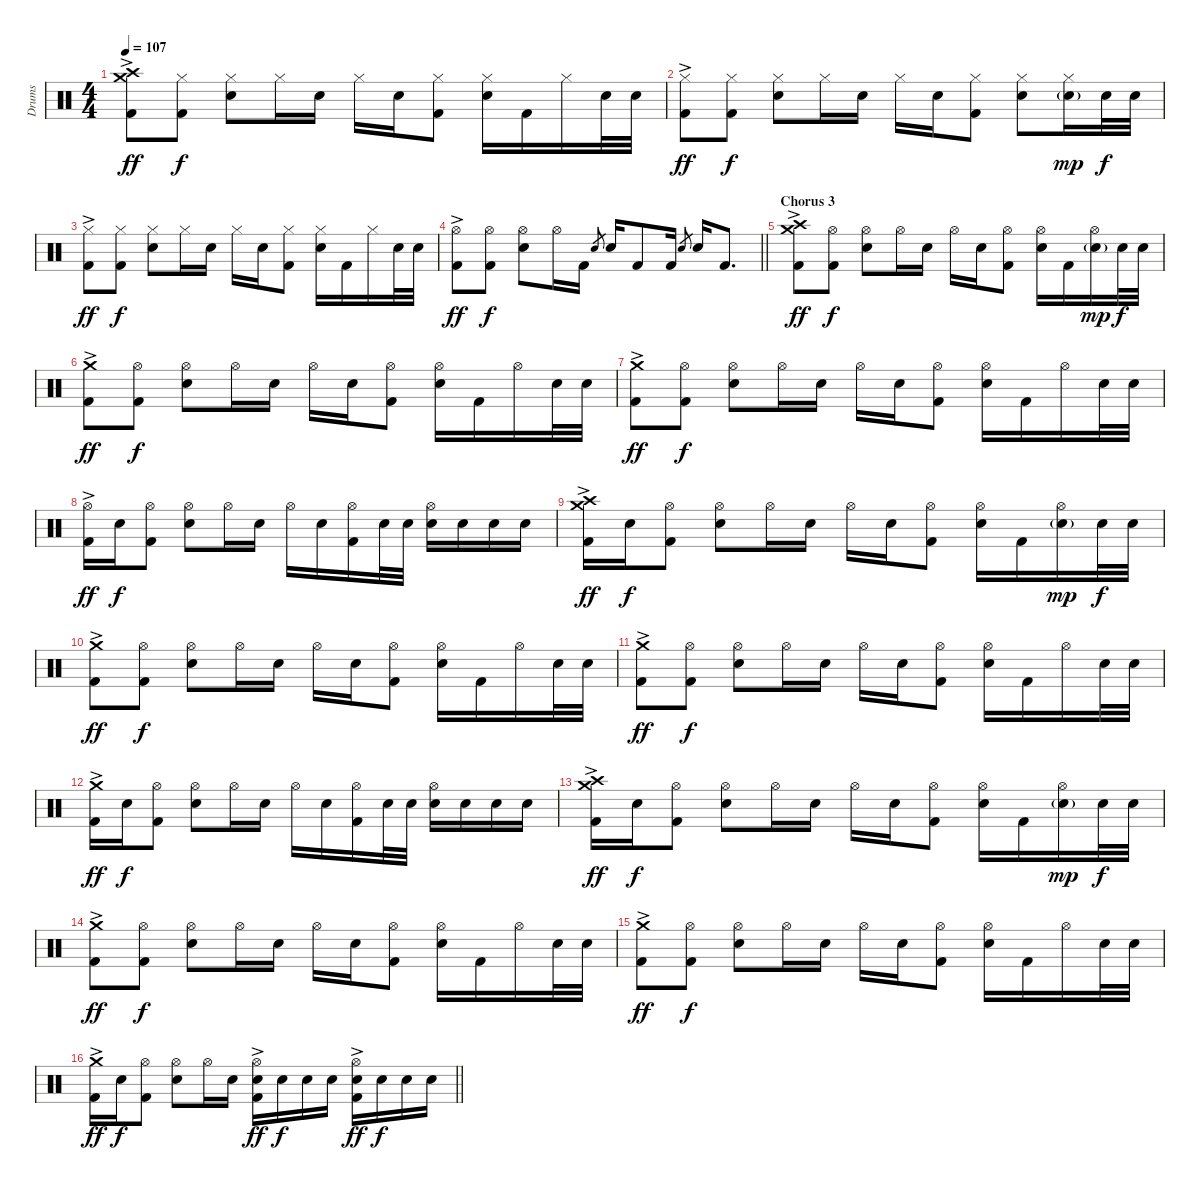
\track ("Drums" "Drums") {instrument percussion}
\staff {score}
\articulation defaults
\ts (4 4)
\tempo 107
\clef neutral
\ks c
("Crash high (hit)" "Crash medium (hit)" "Kick (hit) 2"{ac}).8{dy ff} ("Hi-Hat (closed)" "Kick (hit) 2").8{dy f} ("Hi-Hat (closed)" "Electric Snare (hit)").8 "Hi-Hat (closed)".16 "Electric Snare (hit)".16 "Hi-Hat (closed)".16 "Electric Snare (hit)".16 ("Hi-Hat (closed)" "Kick (hit) 2").8 ("Hi-Hat (closed)" "Electric Snare (hit)").16 "Kick (hit) 2".16 "Hi-Hat (closed)".16 "Electric Snare (hit)".32 "Electric Snare (hit)".32 |
("Hi-Hat (closed)" "Kick (hit) 2"{ac}).8{dy ff} ("Hi-Hat (closed)" "Kick (hit) 2").8{dy f} ("Hi-Hat (closed)" "Electric Snare (hit)").8 "Hi-Hat (closed)".16 "Electric Snare (hit)".16 "Hi-Hat (closed)".16 "Electric Snare (hit)".16 ("Hi-Hat (closed)" "Kick (hit) 2").8 ("Hi-Hat (closed)" "Electric Snare (hit)").8 ("Hi-Hat (closed)" "Electric Snare (hit)"{g}).16{dy mp} "Electric Snare (hit)".32{dy f} "Electric Snare (hit)".32 |
("Hi-Hat (closed)" "Kick (hit) 2"{ac}).8{dy ff} ("Hi-Hat (closed)" "Kick (hit) 2").8{dy f} ("Hi-Hat (closed)" "Electric Snare (hit)").8 "Hi-Hat (closed)".16 "Electric Snare (hit)".16 "Hi-Hat (closed)".16 "Electric Snare (hit)".16 ("Hi-Hat (closed)" "Kick (hit) 2").8 ("Hi-Hat (closed)" "Electric Snare (hit)").16 "Kick (hit) 2".16 "Hi-Hat (closed)".16 "Electric Snare (hit)".32 "Electric Snare (hit)".32 |
\barLineRight lightlight
("Hi-Hat (open)" "Kick (hit) 2"{ac}).8{dy ff} ("Hi-Hat (open)" "Kick (hit) 2").8{dy f} ("Hi-Hat (open)" "Electric Snare (hit)").8 "Hi-Hat (open)".16 "Kick (hit) 2".16{volume 16} "Electric Snare (hit)".8{gr} "Electric Snare (hit)".16 "Kick (hit) 2".8 "Kick (hit) 2".16 "Electric Snare (hit)".8{gr} "Electric Snare (hit)".16 "Kick (hit) 2".8{d} |
\section ("" "Chorus 3")
("Crash high (hit)" "Crash medium (hit)" "Kick (hit) 2"{ac}).8{dy ff} ("Hi-Hat (open)" "Kick (hit) 2").8{dy f} ("Hi-Hat (open)" "Electric Snare (hit)").8 "Hi-Hat (open)".16 "Electric Snare (hit)".16 "Hi-Hat (open)".16 "Electric Snare (hit)".16 ("Hi-Hat (open)" "Kick (hit) 2").8 ("Hi-Hat (open)" "Electric Snare (hit)").16 "Kick (hit) 2".16 ("Hi-Hat (open)" "Electric Snare (hit)"{g}).16{dy mp} "Electric Snare (hit)".32{dy f} "Electric Snare (hit)".32 |
("Crash medium (hit)" "Kick (hit) 2"{ac}).8{dy ff} ("Hi-Hat (open)" "Kick (hit) 2").8{dy f} ("Hi-Hat (open)" "Electric Snare (hit)").8 "Hi-Hat (open)".16 "Electric Snare (hit)".16 "Hi-Hat (open)".16 "Electric Snare (hit)".16 ("Hi-Hat (open)" "Kick (hit) 2").8 ("Hi-Hat (open)" "Electric Snare (hit)").16 "Kick (hit) 2".16 "Hi-Hat (open)".16 "Electric Snare (hit)".32 "Electric Snare (hit)".32 |
("Crash medium (hit)" "Kick (hit) 2"{ac}).8{dy ff} ("Hi-Hat (open)" "Kick (hit) 2").8{dy f} ("Hi-Hat (open)" "Electric Snare (hit)").8 "Hi-Hat (open)".16 "Electric Snare (hit)".16 "Hi-Hat (open)".16 "Electric Snare (hit)".16 ("Hi-Hat (open)" "Kick (hit) 2").8 ("Hi-Hat (open)" "Electric Snare (hit)").16 "Kick (hit) 2".16 "Hi-Hat (open)".16 "Electric Snare (hit)".32 "Electric Snare (hit)".32 |
("Hi-Hat (open)" "Kick (hit) 2"{ac}).16{dy ff} "Electric Snare (hit)".16{dy f} ("Hi-Hat (open)" "Kick (hit) 2").8 ("Hi-Hat (open)" "Electric Snare (hit)").8 "Hi-Hat (open)".16 "Electric Snare (hit)".16 "Hi-Hat (open)".16 "Electric Snare (hit)".16 ("Hi-Hat (open)" "Kick (hit) 2").16 "Electric Snare (hit)".32 "Electric Snare (hit)".32 ("Hi-Hat (open)" "Electric Snare (hit)").16 "Electric Snare (hit)".16 "Electric Snare (hit)".16 "Electric Snare (hit)".16 |
("Crash high (hit)" "Crash medium (hit)" "Kick (hit) 2"{ac}).16{dy ff} "Electric Snare (hit)".16{dy f} ("Hi-Hat (open)" "Kick (hit) 2").8 ("Hi-Hat (open)" "Electric Snare (hit)").8 "Hi-Hat (open)".16 "Electric Snare (hit)".16 "Hi-Hat (open)".16 "Electric Snare (hit)".16 ("Hi-Hat (open)" "Kick (hit) 2").8 ("Hi-Hat (open)" "Electric Snare (hit)").16 "Kick (hit) 2".16 ("Hi-Hat (open)" "Electric Snare (hit)"{g}).16{dy mp} "Electric Snare (hit)".32{dy f} "Electric Snare (hit)".32 |
("Crash medium (hit)" "Kick (hit) 2"{ac}).8{dy ff} ("Hi-Hat (open)" "Kick (hit) 2").8{dy f} ("Hi-Hat (open)" "Electric Snare (hit)").8 "Hi-Hat (open)".16 "Electric Snare (hit)".16 "Hi-Hat (open)".16 "Electric Snare (hit)".16 ("Hi-Hat (open)" "Kick (hit) 2").8 ("Hi-Hat (open)" "Electric Snare (hit)").16 "Kick (hit) 2".16 "Hi-Hat (open)".16 "Electric Snare (hit)".32 "Electric Snare (hit)".32 |
("Crash medium (hit)" "Kick (hit) 2"{ac}).8{dy ff} ("Hi-Hat (open)" "Kick (hit) 2").8{dy f} ("Hi-Hat (open)" "Electric Snare (hit)").8 "Hi-Hat (open)".16 "Electric Snare (hit)".16 "Hi-Hat (open)".16 "Electric Snare (hit)".16 ("Hi-Hat (open)" "Kick (hit) 2").8 ("Hi-Hat (open)" "Electric Snare (hit)").16 "Kick (hit) 2".16 "Hi-Hat (open)".16 "Electric Snare (hit)".32 "Electric Snare (hit)".32 |
("Crash medium (hit)" "Kick (hit) 2"{ac}).16{dy ff} "Electric Snare (hit)".16{dy f} ("Hi-Hat (open)" "Kick (hit) 2").8 ("Hi-Hat (open)" "Electric Snare (hit)").8 "Hi-Hat (open)".16 "Electric Snare (hit)".16 "Hi-Hat (open)".16 "Electric Snare (hit)".16 ("Hi-Hat (open)" "Kick (hit) 2").16 "Electric Snare (hit)".32 "Electric Snare (hit)".32 ("Hi-Hat (open)" "Electric Snare (hit)").16 "Electric Snare (hit)".16 "Electric Snare (hit)".16 "Electric Snare (hit)".16 |
("Crash high (hit)" "Crash medium (hit)" "Kick (hit) 2"{ac}).16{dy ff} "Electric Snare (hit)".16{dy f} ("Hi-Hat (open)" "Kick (hit) 2").8 ("Hi-Hat (open)" "Electric Snare (hit)").8 "Hi-Hat (open)".16 "Electric Snare (hit)".16 "Hi-Hat (open)".16 "Electric Snare (hit)".16 ("Hi-Hat (open)" "Kick (hit) 2").8 ("Hi-Hat (open)" "Electric Snare (hit)").16 "Kick (hit) 2".16 ("Hi-Hat (open)" "Electric Snare (hit)"{g}).16{dy mp} "Electric Snare (hit)".32{dy f} "Electric Snare (hit)".32 |
("Crash medium (hit)" "Kick (hit) 2"{ac}).8{dy ff} ("Hi-Hat (open)" "Kick (hit) 2").8{dy f} ("Hi-Hat (open)" "Electric Snare (hit)").8 "Hi-Hat (open)".16 "Electric Snare (hit)".16 "Hi-Hat (open)".16 "Electric Snare (hit)".16 ("Hi-Hat (open)" "Kick (hit) 2").8 ("Hi-Hat (open)" "Electric Snare (hit)").16 "Kick (hit) 2".16 "Hi-Hat (open)".16 "Electric Snare (hit)".32 "Electric Snare (hit)".32 |
("Crash medium (hit)" "Kick (hit) 2"{ac}).8{dy ff} ("Hi-Hat (open)" "Kick (hit) 2").8{dy f} ("Hi-Hat (open)" "Electric Snare (hit)").8 "Hi-Hat (open)".16 "Electric Snare (hit)".16 "Hi-Hat (open)".16 "Electric Snare (hit)".16 ("Hi-Hat (open)" "Kick (hit) 2").8 ("Hi-Hat (open)" "Electric Snare (hit)").16 "Kick (hit) 2".16 "Hi-Hat (open)".16 "Electric Snare (hit)".32 "Electric Snare (hit)".32 |
\barLineRight lightlight
("Crash medium (hit)" "Kick (hit) 2"{ac}).16{dy ff} "Electric Snare (hit)".16{dy f} ("Hi-Hat (open)" "Kick (hit) 2").8 ("Hi-Hat (open)" "Electric Snare (hit)").8 "Hi-Hat (open)".16 "Electric Snare (hit)".16 ("Hi-Hat (open)" "Electric Snare (hit)"{ac} "Kick (hit) 2").16{dy ff} "Electric Snare (hit)".16{dy f} "Electric Snare (hit)".16 "Electric Snare (hit)".16 ("Hi-Hat (open)" "Electric Snare (hit)"{ac} "Kick (hit) 2").16{dy ff} "Electric Snare (hit)".16{dy f} "Electric Snare (hit)".16 "Electric Snare (hit)".16
